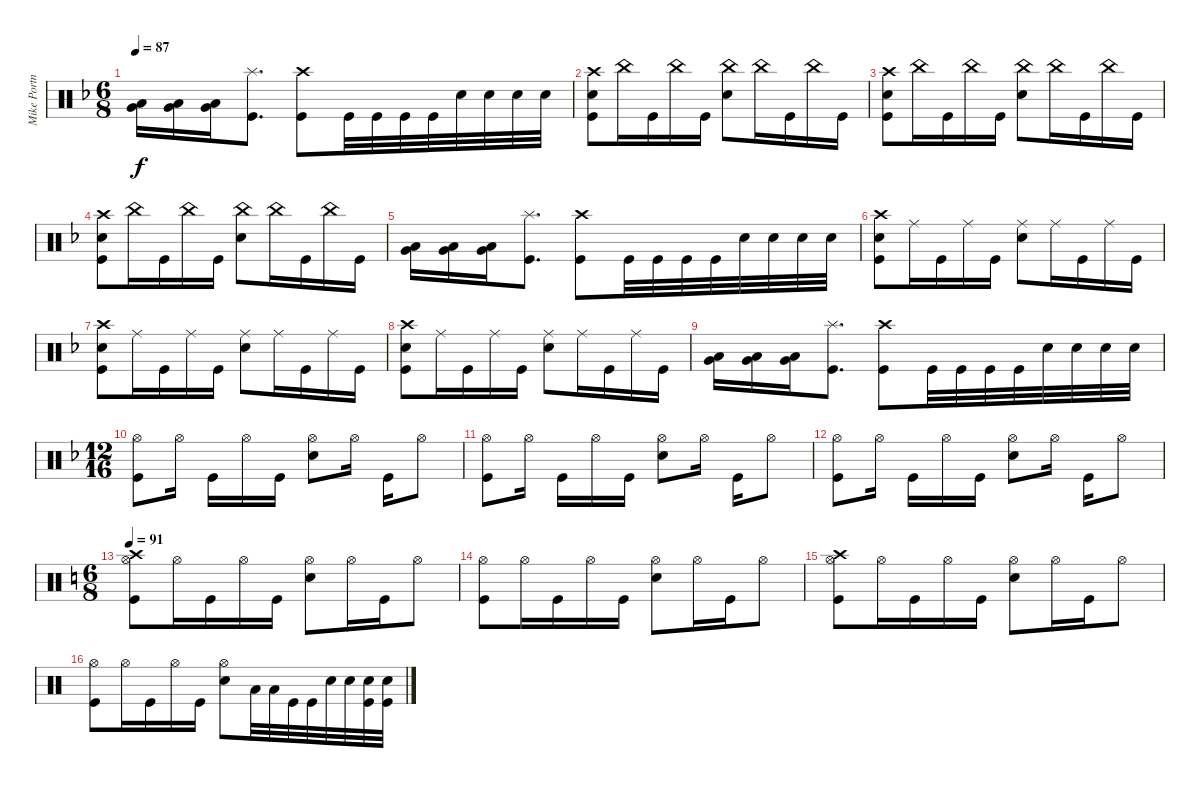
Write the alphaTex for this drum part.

\track ("Mike Portnoy - Drums" "Mike Portn") {instrument percussion}
\staff {score}
\articulation defaults
\ts (6 8)
\tempo 87
\clef neutral
\ks dminor
("Low Tom (hit)" "Very Low Tom (hit)").16{dy f} ("Low Tom (hit)" "Very Low Tom (hit)").16 ("Low Tom (hit)" "Very Low Tom (hit)").16 ("Splash (hit)" "Kick (hit)").8{d} ("Crash high (hit)" "Kick (hit)").8 "Kick (hit)".32 "Kick (hit)".32 "Kick (hit)".32 "Kick (hit)".32 "Snare (hit) 2".32 "Snare (hit) 2".32 "Snare (hit) 2".32 "Snare (hit) 2".32 |
("Crash high (hit)" "Snare (hit) 2" "Kick (hit)").8 "China (hit)".16 "Kick (hit)".16 "China (hit)".16 "Kick (hit)".16 ("China (hit)" "Snare (hit) 2").8 "China (hit)".16 "Kick (hit)".16 "China (hit)".16 "Kick (hit)".16 |
("Crash high (hit)" "Snare (hit) 2" "Kick (hit)").8 "China (hit)".16 "Kick (hit)".16 "China (hit)".16 "Kick (hit)".16 ("China (hit)" "Snare (hit) 2").8 "China (hit)".16 "Kick (hit)".16 "China (hit)".16 "Kick (hit)".16 |
("Crash high (hit)" "Snare (hit) 2" "Kick (hit)").8 "China (hit)".16 "Kick (hit)".16 "China (hit)".16 "Kick (hit)".16 ("China (hit)" "Snare (hit) 2").8 "China (hit)".16 "Kick (hit)".16 "China (hit)".16 "Kick (hit)".16 |
("Low Tom (hit)" "Very Low Tom (hit)").16 ("Low Tom (hit)" "Very Low Tom (hit)").16 ("Low Tom (hit)" "Very Low Tom (hit)").16 ("Splash (hit)" "Kick (hit)").8{d} ("Crash high (hit)" "Kick (hit)").8 "Kick (hit)".32 "Kick (hit)".32 "Kick (hit)".32 "Kick (hit)".32 "Snare (hit) 2".32 "Snare (hit) 2".32 "Snare (hit) 2".32 "Snare (hit) 2".32 |
("Crash high (hit)" "Snare (hit) 2" "Kick (hit)").8 "Ride (middle)".16 "Kick (hit)".16 "Ride (middle)".16 "Kick (hit)".16 ("Ride (middle)" "Snare (hit) 2").8 "Ride (middle)".16 "Kick (hit)".16 "Ride (middle)".16 "Kick (hit)".16 |
("Crash high (hit)" "Snare (hit) 2" "Kick (hit)").8 "Ride (middle)".16 "Kick (hit)".16 "Ride (middle)".16 "Kick (hit)".16 ("Ride (middle)" "Snare (hit) 2").8 "Ride (middle)".16 "Kick (hit)".16 "Ride (middle)".16 "Kick (hit)".16 |
("Crash high (hit)" "Snare (hit) 2" "Kick (hit)").8 "Ride (middle)".16 "Kick (hit)".16 "Ride (middle)".16 "Kick (hit)".16 ("Ride (middle)" "Snare (hit) 2").8 "Ride (middle)".16 "Kick (hit)".16 "Ride (middle)".16 "Kick (hit)".16 |
("Low Tom (hit)" "Very Low Tom (hit)").16 ("Low Tom (hit)" "Very Low Tom (hit)").16 ("Low Tom (hit)" "Very Low Tom (hit)").16 ("Splash (hit)" "Kick (hit)").8{d} ("Crash high (hit)" "Kick (hit)").8 "Kick (hit)".32 "Kick (hit)".32 "Kick (hit)".32 "Kick (hit)".32 "Snare (hit) 2".32 "Snare (hit) 2".32 "Snare (hit) 2".32 "Snare (hit) 2".32 |
\ts (12 16)
("Hi-Hat (open)" "Kick (hit)").8 "Hi-Hat (open)".16 "Kick (hit)".16 "Hi-Hat (open)".16 "Kick (hit)".16 ("Hi-Hat (open)" "Snare (hit) 2").8 "Hi-Hat (open)".16 "Kick (hit)".16 "Hi-Hat (open)".8 |
("Hi-Hat (open)" "Kick (hit)").8 "Hi-Hat (open)".16 "Kick (hit)".16 "Hi-Hat (open)".16 "Kick (hit)".16 ("Hi-Hat (open)" "Snare (hit) 2").8 "Hi-Hat (open)".16 "Kick (hit)".16 "Hi-Hat (open)".8 |
("Hi-Hat (open)" "Kick (hit)").8 "Hi-Hat (open)".16 "Kick (hit)".16 "Hi-Hat (open)".16 "Kick (hit)".16 ("Hi-Hat (open)" "Snare (hit) 2").8 "Hi-Hat (open)".16 "Kick (hit)".16 "Hi-Hat (open)".8 |
\ts (6 8)
\tempo 91
\ks aminor
("Hi-Hat (open)" "Crash high (hit)" "Kick (hit)").8 "Hi-Hat (open)".16 "Kick (hit)".16 "Hi-Hat (open)".16 "Kick (hit)".16 ("Hi-Hat (open)" "Snare (hit) 2").8 "Hi-Hat (open)".16 "Kick (hit)".16 "Hi-Hat (open)".8 |
("Hi-Hat (open)" "Kick (hit)").8 "Hi-Hat (open)".16 "Kick (hit)".16 "Hi-Hat (open)".16 "Kick (hit)".16 ("Hi-Hat (open)" "Snare (hit) 2").8 "Hi-Hat (open)".16 "Kick (hit)".16 "Hi-Hat (open)".8 |
("Hi-Hat (open)" "Crash high (hit)" "Kick (hit)").8 "Hi-Hat (open)".16 "Kick (hit)".16 "Hi-Hat (open)".16 "Kick (hit)".16 ("Hi-Hat (open)" "Snare (hit) 2").8 "Hi-Hat (open)".16 "Kick (hit)".16 "Hi-Hat (open)".8 |
("Hi-Hat (open)" "Kick (hit)").8 "Hi-Hat (open)".16 "Kick (hit)".16 "Hi-Hat (open)".16 "Kick (hit)".16 ("Hi-Hat (open)" "Snare (hit) 2").8 "Low Tom (hit)".32 "Low Tom (hit)".32 "Kick (hit)".32 "Kick (hit)".32 "Snare (hit) 2".32 "Snare (hit) 2".32 ("Snare (hit) 2" "Kick (hit)").32 ("Snare (hit) 2" "Kick (hit)").32
